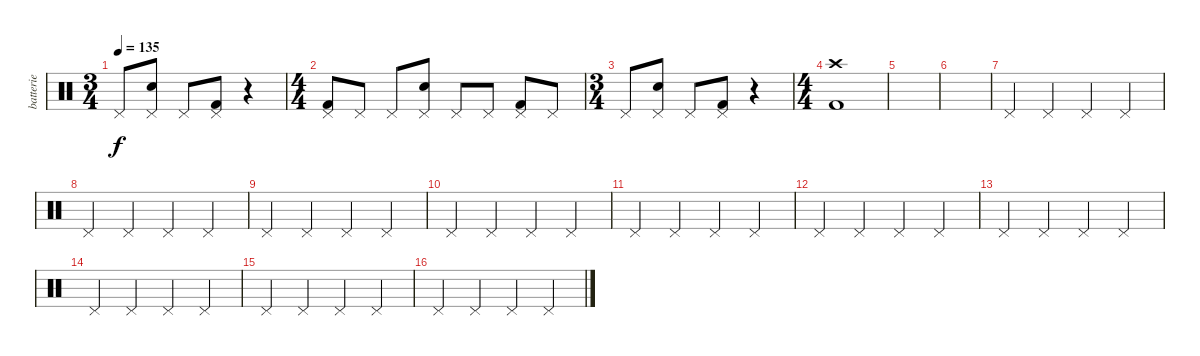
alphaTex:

\track ("batterie" "batterie") {instrument percussion}
\staff {score}
\articulation defaults
\ts (3 4)
\tempo 135
\clef neutral
\ks c "Pedal Hi-Hat (hit)".8{dy f}
("Snare (hit) 2" "Pedal Hi-Hat (hit)").8 "Pedal Hi-Hat (hit)".8 ("Kick (hit) 2" "Pedal Hi-Hat (hit)").8 r.4 |
\ts (4 4)
("Kick (hit) 2" "Pedal Hi-Hat (hit)").8 "Pedal Hi-Hat (hit)".8 "Pedal Hi-Hat (hit)".8 ("Snare (hit) 2" "Pedal Hi-Hat (hit)").8 "Pedal Hi-Hat (hit)".8 "Pedal Hi-Hat (hit)".8 ("Kick (hit) 2" "Pedal Hi-Hat (hit)").8 "Pedal Hi-Hat (hit)".8 |
\ts (3 4)
"Pedal Hi-Hat (hit)".8 ("Snare (hit) 2" "Pedal Hi-Hat (hit)").8 "Pedal Hi-Hat (hit)".8 ("Kick (hit) 2" "Pedal Hi-Hat (hit)").8 r.4 |
\ts (4 4)
("Crash high (hit)" "Kick (hit) 2").1 |
|
|
"Pedal Hi-Hat (hit)".4 "Pedal Hi-Hat (hit)".4 "Pedal Hi-Hat (hit)".4 "Pedal Hi-Hat (hit)".4 |
"Pedal Hi-Hat (hit)".4 "Pedal Hi-Hat (hit)".4 "Pedal Hi-Hat (hit)".4 "Pedal Hi-Hat (hit)".4 |
"Pedal Hi-Hat (hit)".4 "Pedal Hi-Hat (hit)".4 "Pedal Hi-Hat (hit)".4 "Pedal Hi-Hat (hit)".4 |
"Pedal Hi-Hat (hit)".4 "Pedal Hi-Hat (hit)".4 "Pedal Hi-Hat (hit)".4 "Pedal Hi-Hat (hit)".4 |
"Pedal Hi-Hat (hit)".4 "Pedal Hi-Hat (hit)".4 "Pedal Hi-Hat (hit)".4 "Pedal Hi-Hat (hit)".4 |
"Pedal Hi-Hat (hit)".4 "Pedal Hi-Hat (hit)".4 "Pedal Hi-Hat (hit)".4 "Pedal Hi-Hat (hit)".4 |
"Pedal Hi-Hat (hit)".4 "Pedal Hi-Hat (hit)".4 "Pedal Hi-Hat (hit)".4 "Pedal Hi-Hat (hit)".4 |
"Pedal Hi-Hat (hit)".4 "Pedal Hi-Hat (hit)".4 "Pedal Hi-Hat (hit)".4 "Pedal Hi-Hat (hit)".4 |
"Pedal Hi-Hat (hit)".4 "Pedal Hi-Hat (hit)".4 "Pedal Hi-Hat (hit)".4 "Pedal Hi-Hat (hit)".4 |
"Pedal Hi-Hat (hit)".4 "Pedal Hi-Hat (hit)".4 "Pedal Hi-Hat (hit)".4 "Pedal Hi-Hat (hit)".4
